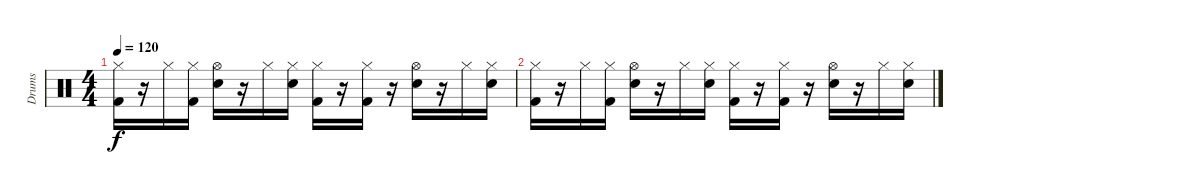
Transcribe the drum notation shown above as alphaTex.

\track ("Drums" "Drums") {instrument percussion}
\staff {score}
\articulation defaults
\ts (4 4)
\tempo 120
\clef neutral
\ks c
("Hi-Hat (closed)" "Kick (hit) 2").16{dy f} r.16 "Hi-Hat (closed)".16 ("Hi-Hat (closed)" "Kick (hit) 2").16 ("Hi-Hat (open)" "Snare (hit) 2").16 r.16 "Hi-Hat (closed)".16 ("Hi-Hat (closed)" "Snare (hit) 2").16 ("Hi-Hat (closed)" "Kick (hit) 2").16 r.16 ("Hi-Hat (closed)" "Kick (hit) 2").16 r.16 ("Hi-Hat (open)" "Snare (hit) 2").16 r.16 "Hi-Hat (closed)".16 ("Hi-Hat (closed)" "Snare (hit) 2").16 |
("Hi-Hat (closed)" "Kick (hit) 2").16 r.16 "Hi-Hat (closed)".16 ("Hi-Hat (closed)" "Kick (hit) 2").16 ("Hi-Hat (open)" "Snare (hit) 2").16 r.16 "Hi-Hat (closed)".16 ("Hi-Hat (closed)" "Snare (hit) 2").16 ("Hi-Hat (closed)" "Kick (hit) 2").16 r.16 ("Hi-Hat (closed)" "Kick (hit) 2").16 r.16 ("Hi-Hat (open)" "Snare (hit) 2").16 r.16 "Hi-Hat (closed)".16 ("Hi-Hat (closed)" "Snare (hit) 2").16
